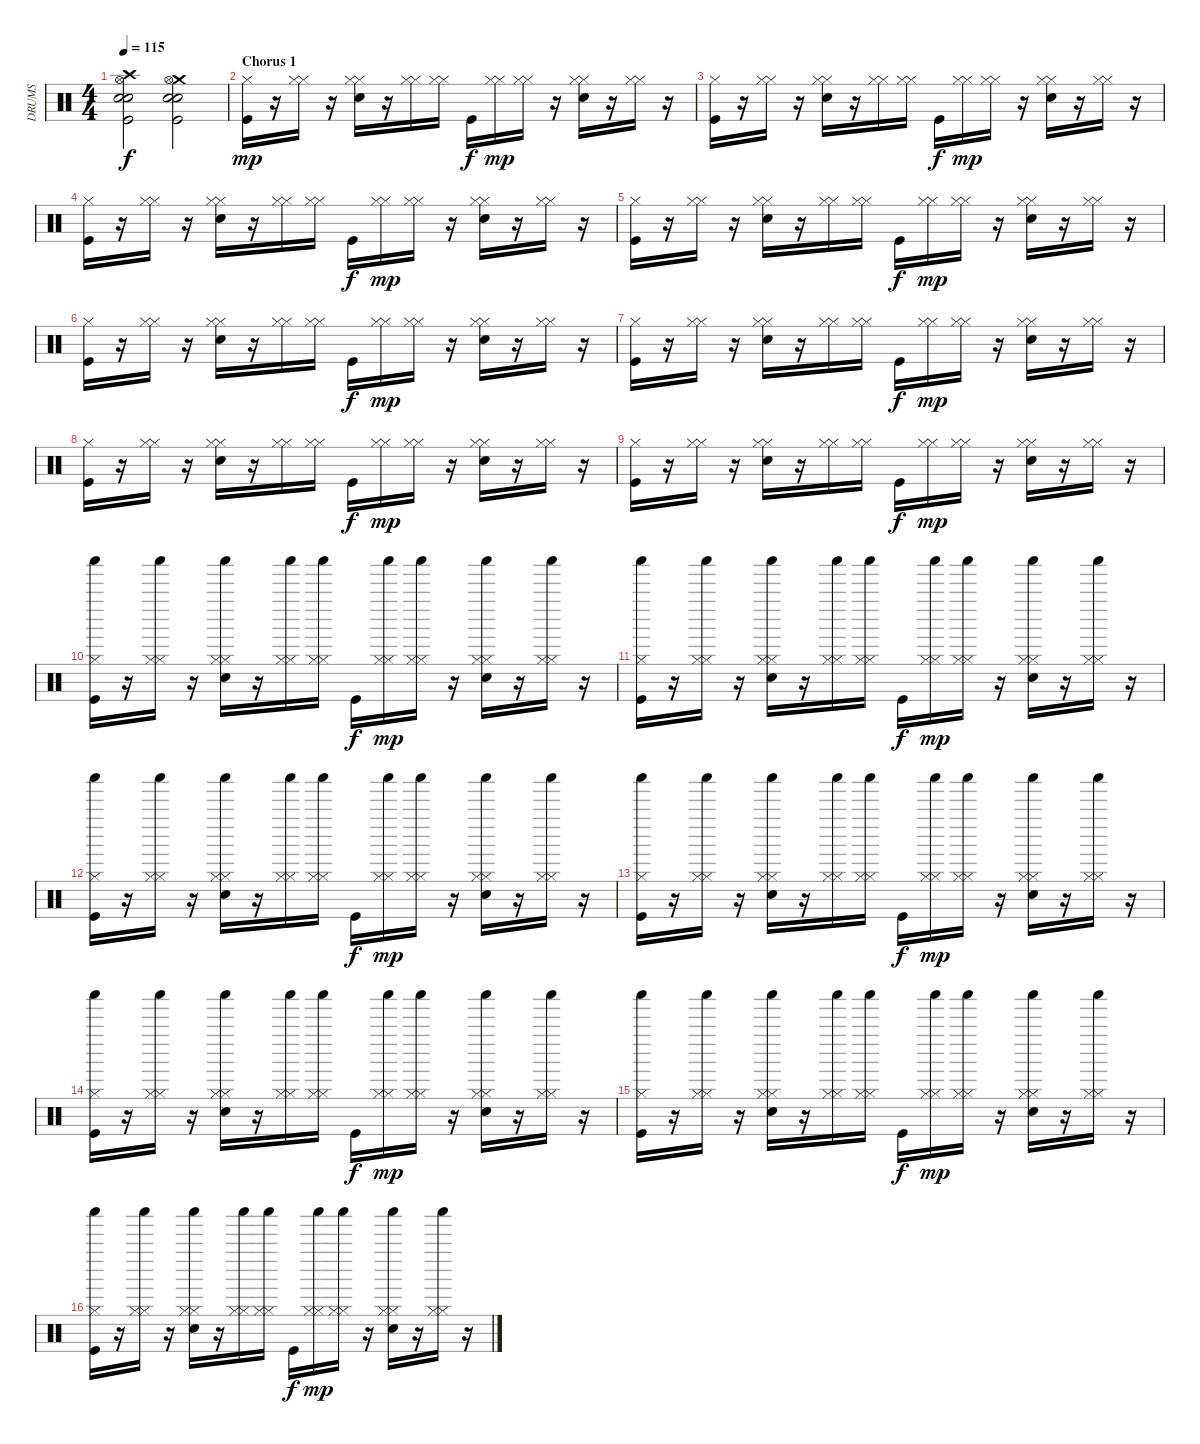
\track ("DRUMS" "DRUMS") {instrument percussion}
\staff {score}
\articulation defaults
\ts (4 4)
\tempo 115
\clef neutral
\ks c
("Crash high (hit)" "Hi-Hat (open)" "Snare (hit) 2" "Kick (hit)" "Electric Snare (hit)").2{dy f} ("Crash medium (hit)" "Hi-Hat (open)" "Snare (hit) 2" "Kick (hit)" "Electric Snare (hit)").2 |
\section ("" "Chorus 1")
("Kick (hit)" "Hi-Hat (closed)").16{dy mp} r.16 ("Hi-Hat (closed)" "Hi-Hat (closed)").16 r.16 ("Hi-Hat (closed)" "Snare (hit) 2" "Hi-Hat (closed)").16 r.16 ("Hi-Hat (closed)" "Hi-Hat (closed)").16 ("Hi-Hat (closed)" "Hi-Hat (closed)").16 "Kick (hit)".16{dy f} ("Hi-Hat (closed)" "Hi-Hat (closed)").16{dy mp} ("Hi-Hat (closed)" "Hi-Hat (closed)").16 r.16 ("Hi-Hat (closed)" "Snare (hit) 2" "Hi-Hat (closed)").16 r.16 ("Hi-Hat (closed)" "Hi-Hat (closed)").16 r.16 |
("Kick (hit)" "Hi-Hat (closed)").16 r.16 ("Hi-Hat (closed)" "Hi-Hat (closed)").16 r.16 ("Hi-Hat (closed)" "Snare (hit) 2" "Hi-Hat (closed)").16 r.16 ("Hi-Hat (closed)" "Hi-Hat (closed)").16 ("Hi-Hat (closed)" "Hi-Hat (closed)").16 "Kick (hit)".16{dy f} ("Hi-Hat (closed)" "Hi-Hat (closed)").16{dy mp} ("Hi-Hat (closed)" "Hi-Hat (closed)").16 r.16 ("Hi-Hat (closed)" "Snare (hit) 2" "Hi-Hat (closed)").16 r.16 ("Hi-Hat (closed)" "Hi-Hat (closed)").16 r.16 |
("Kick (hit)" "Hi-Hat (closed)").16 r.16 ("Hi-Hat (closed)" "Hi-Hat (closed)").16 r.16 ("Hi-Hat (closed)" "Snare (hit) 2" "Hi-Hat (closed)").16 r.16 ("Hi-Hat (closed)" "Hi-Hat (closed)").16 ("Hi-Hat (closed)" "Hi-Hat (closed)").16 "Kick (hit)".16{dy f} ("Hi-Hat (closed)" "Hi-Hat (closed)").16{dy mp} ("Hi-Hat (closed)" "Hi-Hat (closed)").16 r.16 ("Hi-Hat (closed)" "Snare (hit) 2" "Hi-Hat (closed)").16 r.16 ("Hi-Hat (closed)" "Hi-Hat (closed)").16 r.16 |
("Kick (hit)" "Hi-Hat (closed)").16 r.16 ("Hi-Hat (closed)" "Hi-Hat (closed)").16 r.16 ("Hi-Hat (closed)" "Snare (hit) 2" "Hi-Hat (closed)").16 r.16 ("Hi-Hat (closed)" "Hi-Hat (closed)").16 ("Hi-Hat (closed)" "Hi-Hat (closed)").16 "Kick (hit)".16{dy f} ("Hi-Hat (closed)" "Hi-Hat (closed)").16{dy mp} ("Hi-Hat (closed)" "Hi-Hat (closed)").16 r.16 ("Hi-Hat (closed)" "Snare (hit) 2" "Hi-Hat (closed)").16 r.16 ("Hi-Hat (closed)" "Hi-Hat (closed)").16 r.16 |
("Kick (hit)" "Hi-Hat (closed)").16 r.16 ("Hi-Hat (closed)" "Hi-Hat (closed)").16 r.16 ("Hi-Hat (closed)" "Snare (hit) 2" "Hi-Hat (closed)").16 r.16 ("Hi-Hat (closed)" "Hi-Hat (closed)").16 ("Hi-Hat (closed)" "Hi-Hat (closed)").16 "Kick (hit)".16{dy f} ("Hi-Hat (closed)" "Hi-Hat (closed)").16{dy mp} ("Hi-Hat (closed)" "Hi-Hat (closed)").16 r.16 ("Hi-Hat (closed)" "Snare (hit) 2" "Hi-Hat (closed)").16 r.16 ("Hi-Hat (closed)" "Hi-Hat (closed)").16 r.16 |
("Kick (hit)" "Hi-Hat (closed)").16 r.16 ("Hi-Hat (closed)" "Hi-Hat (closed)").16 r.16 ("Hi-Hat (closed)" "Snare (hit) 2" "Hi-Hat (closed)").16 r.16 ("Hi-Hat (closed)" "Hi-Hat (closed)").16 ("Hi-Hat (closed)" "Hi-Hat (closed)").16 "Kick (hit)".16{dy f} ("Hi-Hat (closed)" "Hi-Hat (closed)").16{dy mp} ("Hi-Hat (closed)" "Hi-Hat (closed)").16 r.16 ("Hi-Hat (closed)" "Snare (hit) 2" "Hi-Hat (closed)").16 r.16 ("Hi-Hat (closed)" "Hi-Hat (closed)").16 r.16 |
("Kick (hit)" "Hi-Hat (closed)").16 r.16 ("Hi-Hat (closed)" "Hi-Hat (closed)").16 r.16 ("Hi-Hat (closed)" "Snare (hit) 2" "Hi-Hat (closed)").16 r.16 ("Hi-Hat (closed)" "Hi-Hat (closed)").16 ("Hi-Hat (closed)" "Hi-Hat (closed)").16 "Kick (hit)".16{dy f} ("Hi-Hat (closed)" "Hi-Hat (closed)").16{dy mp} ("Hi-Hat (closed)" "Hi-Hat (closed)").16 r.16 ("Hi-Hat (closed)" "Snare (hit) 2" "Hi-Hat (closed)").16 r.16 ("Hi-Hat (closed)" "Hi-Hat (closed)").16 r.16 |
("Kick (hit)" "Hi-Hat (closed)").16 r.16 ("Hi-Hat (closed)" "Hi-Hat (closed)").16 r.16 ("Hi-Hat (closed)" "Snare (hit) 2" "Hi-Hat (closed)").16 r.16 ("Hi-Hat (closed)" "Hi-Hat (closed)").16 ("Hi-Hat (closed)" "Hi-Hat (closed)").16 "Kick (hit)".16{dy f} ("Hi-Hat (closed)" "Hi-Hat (closed)").16{dy mp} ("Hi-Hat (closed)" "Hi-Hat (closed)").16 r.16 ("Hi-Hat (closed)" "Snare (hit) 2" "Hi-Hat (closed)").16 r.16 ("Hi-Hat (closed)" "Hi-Hat (closed)").16 r.16 |
("Shaker (hit)" "Kick (hit)" "Hi-Hat (closed)").16 r.16 ("Hi-Hat (closed)" "Shaker (hit)" "Hi-Hat (closed)").16 r.16 ("Hi-Hat (closed)" "Shaker (hit)" "Snare (hit) 2" "Hi-Hat (closed)").16 r.16 ("Hi-Hat (closed)" "Shaker (hit)" "Hi-Hat (closed)").16 ("Hi-Hat (closed)" "Shaker (hit)" "Hi-Hat (closed)").16 "Kick (hit)".16{dy f} ("Hi-Hat (closed)" "Shaker (hit)" "Hi-Hat (closed)").16{dy mp} ("Hi-Hat (closed)" "Shaker (hit)" "Hi-Hat (closed)").16 r.16 ("Hi-Hat (closed)" "Shaker (hit)" "Snare (hit) 2" "Hi-Hat (closed)").16 r.16 ("Hi-Hat (closed)" "Shaker (hit)" "Hi-Hat (closed)").16 r.16 |
("Shaker (hit)" "Kick (hit)" "Hi-Hat (closed)").16 r.16 ("Hi-Hat (closed)" "Shaker (hit)" "Hi-Hat (closed)").16 r.16 ("Hi-Hat (closed)" "Shaker (hit)" "Snare (hit) 2" "Hi-Hat (closed)").16 r.16 ("Hi-Hat (closed)" "Shaker (hit)" "Hi-Hat (closed)").16 ("Hi-Hat (closed)" "Shaker (hit)" "Hi-Hat (closed)").16 "Kick (hit)".16{dy f} ("Hi-Hat (closed)" "Shaker (hit)" "Hi-Hat (closed)").16{dy mp} ("Hi-Hat (closed)" "Shaker (hit)" "Hi-Hat (closed)").16 r.16 ("Hi-Hat (closed)" "Shaker (hit)" "Snare (hit) 2" "Hi-Hat (closed)").16 r.16 ("Hi-Hat (closed)" "Shaker (hit)" "Hi-Hat (closed)").16 r.16 |
("Shaker (hit)" "Kick (hit)" "Hi-Hat (closed)").16 r.16 ("Hi-Hat (closed)" "Shaker (hit)" "Hi-Hat (closed)").16 r.16 ("Hi-Hat (closed)" "Shaker (hit)" "Snare (hit) 2" "Hi-Hat (closed)").16 r.16 ("Hi-Hat (closed)" "Shaker (hit)" "Hi-Hat (closed)").16 ("Hi-Hat (closed)" "Shaker (hit)" "Hi-Hat (closed)").16 "Kick (hit)".16{dy f} ("Hi-Hat (closed)" "Shaker (hit)" "Hi-Hat (closed)").16{dy mp} ("Hi-Hat (closed)" "Shaker (hit)" "Hi-Hat (closed)").16 r.16 ("Hi-Hat (closed)" "Shaker (hit)" "Snare (hit) 2" "Hi-Hat (closed)").16 r.16 ("Hi-Hat (closed)" "Shaker (hit)" "Hi-Hat (closed)").16 r.16 |
("Shaker (hit)" "Kick (hit)" "Hi-Hat (closed)").16 r.16 ("Hi-Hat (closed)" "Shaker (hit)" "Hi-Hat (closed)").16 r.16 ("Hi-Hat (closed)" "Shaker (hit)" "Snare (hit) 2" "Hi-Hat (closed)").16 r.16 ("Hi-Hat (closed)" "Shaker (hit)" "Hi-Hat (closed)").16 ("Hi-Hat (closed)" "Shaker (hit)" "Hi-Hat (closed)").16 "Kick (hit)".16{dy f} ("Hi-Hat (closed)" "Shaker (hit)" "Hi-Hat (closed)").16{dy mp} ("Hi-Hat (closed)" "Shaker (hit)" "Hi-Hat (closed)").16 r.16 ("Hi-Hat (closed)" "Shaker (hit)" "Snare (hit) 2" "Hi-Hat (closed)").16 r.16 ("Hi-Hat (closed)" "Shaker (hit)" "Hi-Hat (closed)").16 r.16 |
("Shaker (hit)" "Kick (hit)" "Hi-Hat (closed)").16 r.16 ("Hi-Hat (closed)" "Shaker (hit)" "Hi-Hat (closed)").16 r.16 ("Hi-Hat (closed)" "Shaker (hit)" "Snare (hit) 2" "Hi-Hat (closed)").16 r.16 ("Hi-Hat (closed)" "Shaker (hit)" "Hi-Hat (closed)").16 ("Hi-Hat (closed)" "Shaker (hit)" "Hi-Hat (closed)").16 "Kick (hit)".16{dy f} ("Hi-Hat (closed)" "Shaker (hit)" "Hi-Hat (closed)").16{dy mp} ("Hi-Hat (closed)" "Shaker (hit)" "Hi-Hat (closed)").16 r.16 ("Hi-Hat (closed)" "Shaker (hit)" "Snare (hit) 2" "Hi-Hat (closed)").16 r.16 ("Hi-Hat (closed)" "Shaker (hit)" "Hi-Hat (closed)").16 r.16 |
("Shaker (hit)" "Kick (hit)" "Hi-Hat (closed)").16 r.16 ("Hi-Hat (closed)" "Shaker (hit)" "Hi-Hat (closed)").16 r.16 ("Hi-Hat (closed)" "Shaker (hit)" "Snare (hit) 2" "Hi-Hat (closed)").16 r.16 ("Hi-Hat (closed)" "Shaker (hit)" "Hi-Hat (closed)").16 ("Hi-Hat (closed)" "Shaker (hit)" "Hi-Hat (closed)").16 "Kick (hit)".16{dy f} ("Hi-Hat (closed)" "Shaker (hit)" "Hi-Hat (closed)").16{dy mp} ("Hi-Hat (closed)" "Shaker (hit)" "Hi-Hat (closed)").16 r.16 ("Hi-Hat (closed)" "Shaker (hit)" "Snare (hit) 2" "Hi-Hat (closed)").16 r.16 ("Hi-Hat (closed)" "Shaker (hit)" "Hi-Hat (closed)").16 r.16 |
("Shaker (hit)" "Kick (hit)" "Hi-Hat (closed)").16 r.16 ("Hi-Hat (closed)" "Shaker (hit)" "Hi-Hat (closed)").16 r.16 ("Hi-Hat (closed)" "Shaker (hit)" "Snare (hit) 2" "Hi-Hat (closed)").16 r.16 ("Hi-Hat (closed)" "Shaker (hit)" "Hi-Hat (closed)").16 ("Hi-Hat (closed)" "Shaker (hit)" "Hi-Hat (closed)").16 "Kick (hit)".16{dy f} ("Hi-Hat (closed)" "Shaker (hit)" "Hi-Hat (closed)").16{dy mp} ("Hi-Hat (closed)" "Shaker (hit)" "Hi-Hat (closed)").16 r.16 ("Hi-Hat (closed)" "Shaker (hit)" "Snare (hit) 2" "Hi-Hat (closed)").16 r.16 ("Hi-Hat (closed)" "Shaker (hit)" "Hi-Hat (closed)").16 r.16
